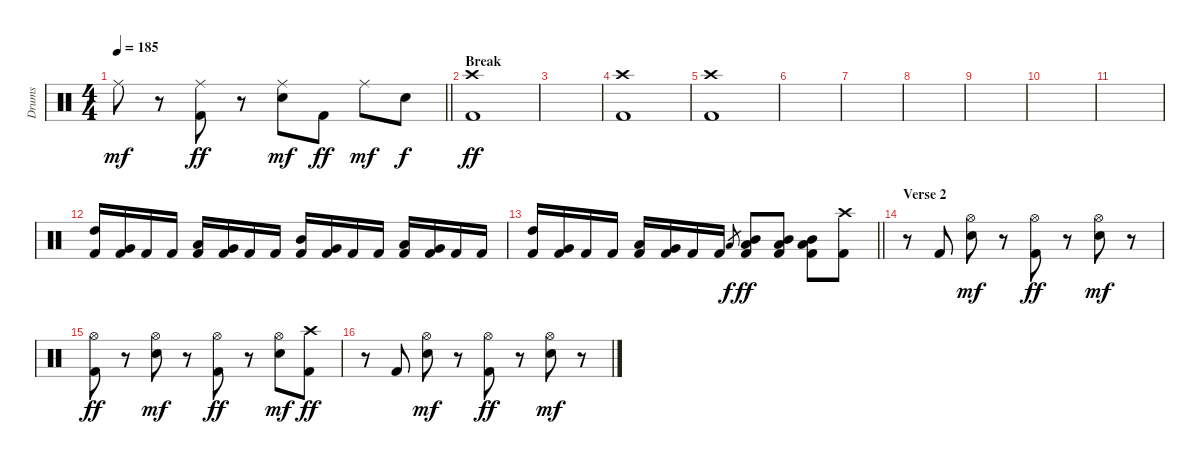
\track ("Drums" "Drums") {instrument percussion}
\staff {score}
\articulation defaults
\ts (4 4)
\tempo 185
\clef neutral
\barLineRight lightlight
\ks c "Ride (middle)".8{dy mf}
r.8 ("Ride (middle)" "Kick (hit) 2").8{dy ff} r.8 ("Ride (middle)" "Electric Snare (hit)").8{dy mf} "Kick (hit) 2".8{dy ff} "Ride (middle)".8{dy mf} "Electric Snare (hit)".8{dy f} |
\section ("" "Break")
("Crash high (hit)" "Kick (hit) 2").1{dy ff} |
|
("Crash high (hit)" "Kick (hit) 2").1 |
("Crash high (hit)" "Kick (hit) 2").1 |
|
|
|
|
|
|
("High Tom (hit)" "Kick (hit) 2").16 ("Very Low Tom (hit)" "Kick (hit) 2").16 "Kick (hit) 2".16 "Kick (hit) 2".16 ("Low Tom (hit)" "Kick (hit) 2").16 ("Very Low Tom (hit)" "Kick (hit) 2").16 "Kick (hit) 2".16 "Kick (hit) 2".16 ("Mid Tom (hit)" "Kick (hit) 2").16 ("Very Low Tom (hit)" "Kick (hit) 2").16 "Kick (hit) 2".16 "Kick (hit) 2".16 ("Low Tom (hit)" "Kick (hit) 2").16 ("Very Low Tom (hit)" "Kick (hit) 2").16 "Kick (hit) 2".16 "Kick (hit) 2".16 |
\barLineRight lightlight
("High Tom (hit)" "Kick (hit) 2").16 ("Very Low Tom (hit)" "Kick (hit) 2").16 "Kick (hit) 2".16 "Kick (hit) 2".16 ("Low Tom (hit)" "Kick (hit) 2").16 ("Very Low Tom (hit)" "Kick (hit) 2").16 "Kick (hit) 2".16 "Kick (hit) 2".16 "Low Tom (hit)".8{gr dy f} ("Mid Tom (hit)" "Low Tom (hit)" "Kick (hit) 2").8{dy ff} ("Mid Tom (hit)" "Low Tom (hit)" "Kick (hit) 2").8 ("Mid Tom (hit)" "Low Tom (hit)" "Kick (hit) 2").8 ("Crash high (hit)" "Kick (hit) 2").8 |
\section ("" "Verse 2")
r.8 "Kick (hit) 2".8 ("Hi-Hat (open)" "Electric Snare (hit)").8{dy mf} r.8 ("Hi-Hat (open)" "Kick (hit) 2").8{dy ff} r.8 ("Hi-Hat (open)" "Electric Snare (hit)").8{dy mf} r.8 |
("Hi-Hat (open)" "Kick (hit) 2").8{dy ff} r.8 ("Hi-Hat (open)" "Electric Snare (hit)").8{dy mf} r.8 ("Hi-Hat (open)" "Kick (hit) 2").8{dy ff} r.8 ("Hi-Hat (open)" "Electric Snare (hit)").8{dy mf} ("Crash high (hit)" "Kick (hit) 2").8{dy ff} |
r.8 "Kick (hit) 2".8 ("Hi-Hat (open)" "Electric Snare (hit)").8{dy mf} r.8 ("Hi-Hat (open)" "Kick (hit) 2").8{dy ff} r.8 ("Hi-Hat (open)" "Electric Snare (hit)").8{dy mf} r.8
